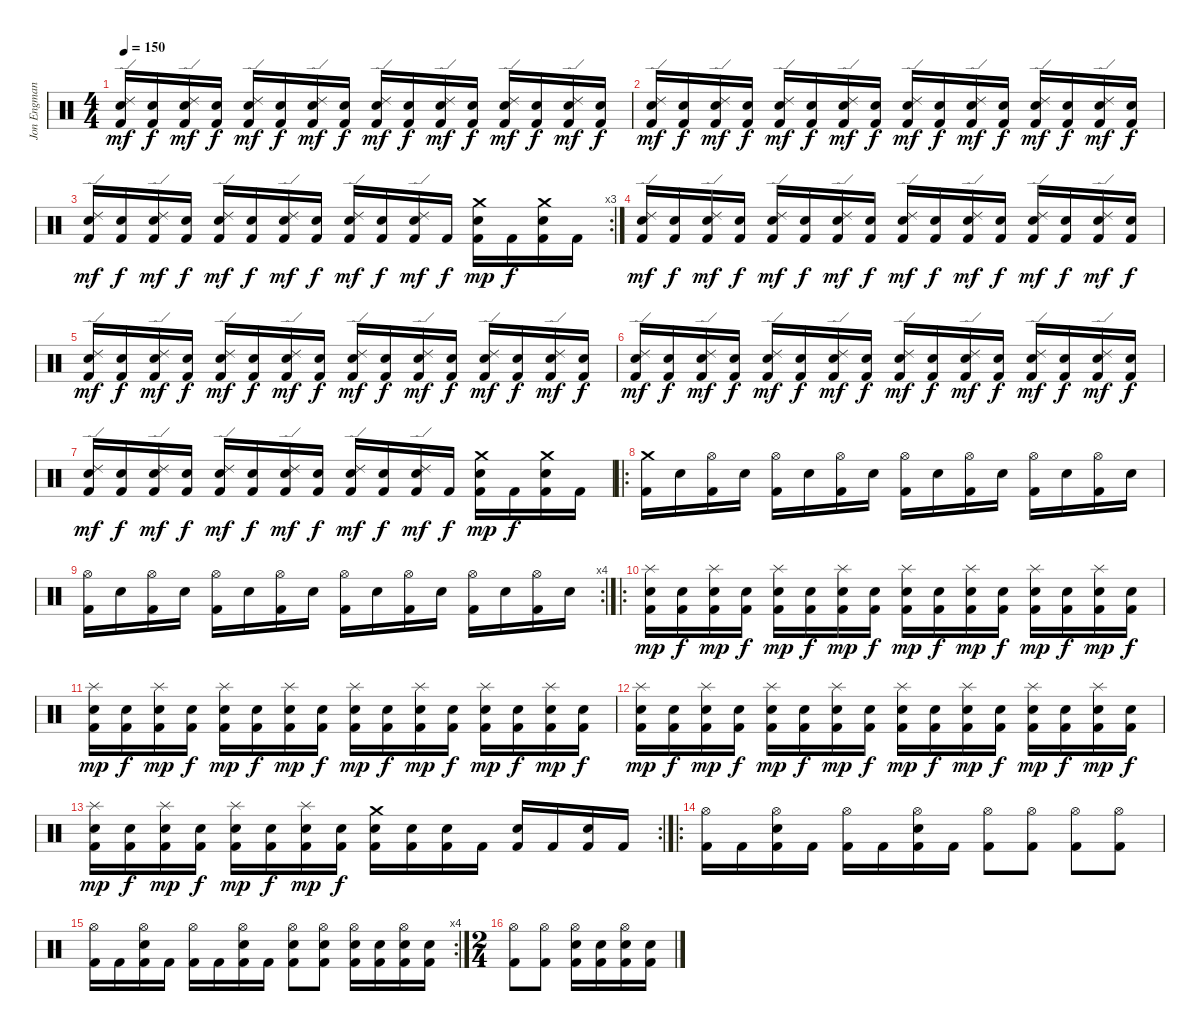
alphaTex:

\track ("Jon Engman" "Jon Engman") {instrument percussion}
\staff {score}
\articulation defaults
\ts (4 4)
\tempo 150
\clef neutral
\ks c
("Ride (edge) 2" "Electric Snare (hit)" "Kick (hit) 2").16{dy mf} ("Electric Snare (hit)" "Kick (hit) 2").16{dy f} ("Ride (edge) 2" "Electric Snare (hit)" "Kick (hit) 2").16{dy mf} ("Electric Snare (hit)" "Kick (hit) 2").16{dy f} ("Ride (edge) 2" "Electric Snare (hit)" "Kick (hit) 2").16{dy mf} ("Electric Snare (hit)" "Kick (hit) 2").16{dy f} ("Ride (edge) 2" "Electric Snare (hit)" "Kick (hit) 2").16{dy mf} ("Electric Snare (hit)" "Kick (hit) 2").16{dy f} ("Ride (edge) 2" "Electric Snare (hit)" "Kick (hit) 2").16{dy mf} ("Electric Snare (hit)" "Kick (hit) 2").16{dy f} ("Ride (edge) 2" "Electric Snare (hit)" "Kick (hit) 2").16{dy mf} ("Electric Snare (hit)" "Kick (hit) 2").16{dy f} ("Ride (edge) 2" "Electric Snare (hit)" "Kick (hit) 2").16{dy mf} ("Electric Snare (hit)" "Kick (hit) 2").16{dy f} ("Ride (edge) 2" "Electric Snare (hit)" "Kick (hit) 2").16{dy mf} ("Electric Snare (hit)" "Kick (hit) 2").16{dy f} |
("Ride (edge) 2" "Electric Snare (hit)" "Kick (hit) 2").16{dy mf} ("Electric Snare (hit)" "Kick (hit) 2").16{dy f} ("Ride (edge) 2" "Electric Snare (hit)" "Kick (hit) 2").16{dy mf} ("Electric Snare (hit)" "Kick (hit) 2").16{dy f} ("Ride (edge) 2" "Electric Snare (hit)" "Kick (hit) 2").16{dy mf} ("Electric Snare (hit)" "Kick (hit) 2").16{dy f} ("Ride (edge) 2" "Electric Snare (hit)" "Kick (hit) 2").16{dy mf} ("Electric Snare (hit)" "Kick (hit) 2").16{dy f} ("Ride (edge) 2" "Electric Snare (hit)" "Kick (hit) 2").16{dy mf} ("Electric Snare (hit)" "Kick (hit) 2").16{dy f} ("Ride (edge) 2" "Electric Snare (hit)" "Kick (hit) 2").16{dy mf} ("Electric Snare (hit)" "Kick (hit) 2").16{dy f} ("Ride (edge) 2" "Electric Snare (hit)" "Kick (hit) 2").16{dy mf} ("Electric Snare (hit)" "Kick (hit) 2").16{dy f} ("Ride (edge) 2" "Electric Snare (hit)" "Kick (hit) 2").16{dy mf} ("Electric Snare (hit)" "Kick (hit) 2").16{dy f} |
\rc 3
("Ride (edge) 2" "Electric Snare (hit)" "Kick (hit) 2").16{dy mf} ("Electric Snare (hit)" "Kick (hit) 2").16{dy f} ("Ride (edge) 2" "Electric Snare (hit)" "Kick (hit) 2").16{dy mf} ("Electric Snare (hit)" "Kick (hit) 2").16{dy f} ("Ride (edge) 2" "Electric Snare (hit)" "Kick (hit) 2").16{dy mf} ("Electric Snare (hit)" "Kick (hit) 2").16{dy f} ("Ride (edge) 2" "Electric Snare (hit)" "Kick (hit) 2").16{dy mf} ("Electric Snare (hit)" "Kick (hit) 2").16{dy f} ("Ride (edge) 2" "Electric Snare (hit)" "Kick (hit) 2").16{dy mf} ("Electric Snare (hit)" "Kick (hit) 2").16{dy f} ("Ride (edge) 2" "Electric Snare (hit)" "Kick (hit) 2").16{dy mf} "Kick (hit) 2".16{dy f} ("Crash medium (hit)" "Electric Snare (hit)" "Kick (hit) 2").16{dy mp} "Kick (hit) 2".16{dy f} ("Crash medium (hit)" "Electric Snare (hit)" "Kick (hit) 2").16 "Kick (hit) 2".16 |
("Ride (edge) 2" "Electric Snare (hit)" "Kick (hit) 2").16{dy mf} ("Electric Snare (hit)" "Kick (hit) 2").16{dy f} ("Ride (edge) 2" "Electric Snare (hit)" "Kick (hit) 2").16{dy mf} ("Electric Snare (hit)" "Kick (hit) 2").16{dy f} ("Ride (edge) 2" "Electric Snare (hit)" "Kick (hit) 2").16{dy mf} ("Electric Snare (hit)" "Kick (hit) 2").16{dy f} ("Ride (edge) 2" "Electric Snare (hit)" "Kick (hit) 2").16{dy mf} ("Electric Snare (hit)" "Kick (hit) 2").16{dy f} ("Ride (edge) 2" "Electric Snare (hit)" "Kick (hit) 2").16{dy mf} ("Electric Snare (hit)" "Kick (hit) 2").16{dy f} ("Ride (edge) 2" "Electric Snare (hit)" "Kick (hit) 2").16{dy mf} ("Electric Snare (hit)" "Kick (hit) 2").16{dy f} ("Ride (edge) 2" "Electric Snare (hit)" "Kick (hit) 2").16{dy mf} ("Electric Snare (hit)" "Kick (hit) 2").16{dy f} ("Ride (edge) 2" "Electric Snare (hit)" "Kick (hit) 2").16{dy mf} ("Electric Snare (hit)" "Kick (hit) 2").16{dy f} |
("Ride (edge) 2" "Electric Snare (hit)" "Kick (hit) 2").16{dy mf} ("Electric Snare (hit)" "Kick (hit) 2").16{dy f} ("Ride (edge) 2" "Electric Snare (hit)" "Kick (hit) 2").16{dy mf} ("Electric Snare (hit)" "Kick (hit) 2").16{dy f} ("Ride (edge) 2" "Electric Snare (hit)" "Kick (hit) 2").16{dy mf} ("Electric Snare (hit)" "Kick (hit) 2").16{dy f} ("Ride (edge) 2" "Electric Snare (hit)" "Kick (hit) 2").16{dy mf} ("Electric Snare (hit)" "Kick (hit) 2").16{dy f} ("Ride (edge) 2" "Electric Snare (hit)" "Kick (hit) 2").16{dy mf} ("Electric Snare (hit)" "Kick (hit) 2").16{dy f} ("Ride (edge) 2" "Electric Snare (hit)" "Kick (hit) 2").16{dy mf} ("Electric Snare (hit)" "Kick (hit) 2").16{dy f} ("Ride (edge) 2" "Electric Snare (hit)" "Kick (hit) 2").16{dy mf} ("Electric Snare (hit)" "Kick (hit) 2").16{dy f} ("Ride (edge) 2" "Electric Snare (hit)" "Kick (hit) 2").16{dy mf} ("Electric Snare (hit)" "Kick (hit) 2").16{dy f} |
("Ride (edge) 2" "Electric Snare (hit)" "Kick (hit) 2").16{dy mf} ("Electric Snare (hit)" "Kick (hit) 2").16{dy f} ("Ride (edge) 2" "Electric Snare (hit)" "Kick (hit) 2").16{dy mf} ("Electric Snare (hit)" "Kick (hit) 2").16{dy f} ("Ride (edge) 2" "Electric Snare (hit)" "Kick (hit) 2").16{dy mf} ("Electric Snare (hit)" "Kick (hit) 2").16{dy f} ("Ride (edge) 2" "Electric Snare (hit)" "Kick (hit) 2").16{dy mf} ("Electric Snare (hit)" "Kick (hit) 2").16{dy f} ("Ride (edge) 2" "Electric Snare (hit)" "Kick (hit) 2").16{dy mf} ("Electric Snare (hit)" "Kick (hit) 2").16{dy f} ("Ride (edge) 2" "Electric Snare (hit)" "Kick (hit) 2").16{dy mf} ("Electric Snare (hit)" "Kick (hit) 2").16{dy f} ("Ride (edge) 2" "Electric Snare (hit)" "Kick (hit) 2").16{dy mf} ("Electric Snare (hit)" "Kick (hit) 2").16{dy f} ("Ride (edge) 2" "Electric Snare (hit)" "Kick (hit) 2").16{dy mf} ("Electric Snare (hit)" "Kick (hit) 2").16{dy f} |
("Ride (edge) 2" "Electric Snare (hit)" "Kick (hit) 2").16{dy mf} ("Electric Snare (hit)" "Kick (hit) 2").16{dy f} ("Ride (edge) 2" "Electric Snare (hit)" "Kick (hit) 2").16{dy mf} ("Electric Snare (hit)" "Kick (hit) 2").16{dy f} ("Ride (edge) 2" "Electric Snare (hit)" "Kick (hit) 2").16{dy mf} ("Electric Snare (hit)" "Kick (hit) 2").16{dy f} ("Ride (edge) 2" "Electric Snare (hit)" "Kick (hit) 2").16{dy mf} ("Electric Snare (hit)" "Kick (hit) 2").16{dy f} ("Ride (edge) 2" "Electric Snare (hit)" "Kick (hit) 2").16{dy mf} ("Electric Snare (hit)" "Kick (hit) 2").16{dy f} ("Ride (edge) 2" "Electric Snare (hit)" "Kick (hit) 2").16{dy mf} "Kick (hit) 2".16{dy f} ("Crash medium (hit)" "Electric Snare (hit)" "Kick (hit) 2").16{dy mp} "Kick (hit) 2".16{dy f} ("Crash medium (hit)" "Electric Snare (hit)" "Kick (hit) 2").16 "Kick (hit) 2".16 |
\ro
("Crash medium (hit)" "Kick (hit) 2").16 "Electric Snare (hit)".16 ("Hi-Hat (open)" "Kick (hit) 2").16 "Electric Snare (hit)".16 ("Hi-Hat (open)" "Kick (hit) 2").16 "Electric Snare (hit)".16 ("Hi-Hat (open)" "Kick (hit) 2").16 "Electric Snare (hit)".16 ("Hi-Hat (open)" "Kick (hit) 2").16 "Electric Snare (hit)".16 ("Hi-Hat (open)" "Kick (hit) 2").16 "Electric Snare (hit)".16 ("Hi-Hat (open)" "Kick (hit) 2").16 "Electric Snare (hit)".16 ("Hi-Hat (open)" "Kick (hit) 2").16 "Electric Snare (hit)".16 |
\rc 4
("Hi-Hat (open)" "Kick (hit) 2").16 "Electric Snare (hit)".16 ("Hi-Hat (open)" "Kick (hit) 2").16 "Electric Snare (hit)".16 ("Hi-Hat (open)" "Kick (hit) 2").16 "Electric Snare (hit)".16 ("Hi-Hat (open)" "Kick (hit) 2").16 "Electric Snare (hit)".16 ("Hi-Hat (open)" "Kick (hit) 2").16 "Electric Snare (hit)".16 ("Hi-Hat (open)" "Kick (hit) 2").16 "Electric Snare (hit)".16 ("Hi-Hat (open)" "Kick (hit) 2").16 "Electric Snare (hit)".16 ("Hi-Hat (open)" "Kick (hit) 2").16 "Electric Snare (hit)".16 |
\ro
("Splash (hit)" "Electric Snare (hit)" "Kick (hit) 2").16{dy mp} ("Electric Snare (hit)" "Kick (hit) 2").16{dy f} ("Splash (hit)" "Electric Snare (hit)" "Kick (hit) 2").16{dy mp} ("Electric Snare (hit)" "Kick (hit) 2").16{dy f} ("Splash (hit)" "Electric Snare (hit)" "Kick (hit) 2").16{dy mp} ("Electric Snare (hit)" "Kick (hit) 2").16{dy f} ("Splash (hit)" "Electric Snare (hit)" "Kick (hit) 2").16{dy mp} ("Electric Snare (hit)" "Kick (hit) 2").16{dy f} ("Splash (hit)" "Electric Snare (hit)" "Kick (hit) 2").16{dy mp} ("Electric Snare (hit)" "Kick (hit) 2").16{dy f} ("Splash (hit)" "Electric Snare (hit)" "Kick (hit) 2").16{dy mp} ("Electric Snare (hit)" "Kick (hit) 2").16{dy f} ("Splash (hit)" "Electric Snare (hit)" "Kick (hit) 2").16{dy mp} ("Electric Snare (hit)" "Kick (hit) 2").16{dy f} ("Splash (hit)" "Electric Snare (hit)" "Kick (hit) 2").16{dy mp} ("Electric Snare (hit)" "Kick (hit) 2").16{dy f} |
("Splash (hit)" "Electric Snare (hit)" "Kick (hit) 2").16{dy mp} ("Electric Snare (hit)" "Kick (hit) 2").16{dy f} ("Splash (hit)" "Electric Snare (hit)" "Kick (hit) 2").16{dy mp} ("Electric Snare (hit)" "Kick (hit) 2").16{dy f} ("Splash (hit)" "Electric Snare (hit)" "Kick (hit) 2").16{dy mp} ("Electric Snare (hit)" "Kick (hit) 2").16{dy f} ("Splash (hit)" "Electric Snare (hit)" "Kick (hit) 2").16{dy mp} ("Electric Snare (hit)" "Kick (hit) 2").16{dy f} ("Splash (hit)" "Electric Snare (hit)" "Kick (hit) 2").16{dy mp} ("Electric Snare (hit)" "Kick (hit) 2").16{dy f} ("Splash (hit)" "Electric Snare (hit)" "Kick (hit) 2").16{dy mp} ("Electric Snare (hit)" "Kick (hit) 2").16{dy f} ("Splash (hit)" "Electric Snare (hit)" "Kick (hit) 2").16{dy mp} ("Electric Snare (hit)" "Kick (hit) 2").16{dy f} ("Splash (hit)" "Electric Snare (hit)" "Kick (hit) 2").16{dy mp} ("Electric Snare (hit)" "Kick (hit) 2").16{dy f} |
("Splash (hit)" "Electric Snare (hit)" "Kick (hit) 2").16{dy mp} ("Electric Snare (hit)" "Kick (hit) 2").16{dy f} ("Splash (hit)" "Electric Snare (hit)" "Kick (hit) 2").16{dy mp} ("Electric Snare (hit)" "Kick (hit) 2").16{dy f} ("Splash (hit)" "Electric Snare (hit)" "Kick (hit) 2").16{dy mp} ("Electric Snare (hit)" "Kick (hit) 2").16{dy f} ("Splash (hit)" "Electric Snare (hit)" "Kick (hit) 2").16{dy mp} ("Electric Snare (hit)" "Kick (hit) 2").16{dy f} ("Splash (hit)" "Electric Snare (hit)" "Kick (hit) 2").16{dy mp} ("Electric Snare (hit)" "Kick (hit) 2").16{dy f} ("Splash (hit)" "Electric Snare (hit)" "Kick (hit) 2").16{dy mp} ("Electric Snare (hit)" "Kick (hit) 2").16{dy f} ("Splash (hit)" "Electric Snare (hit)" "Kick (hit) 2").16{dy mp} ("Electric Snare (hit)" "Kick (hit) 2").16{dy f} ("Splash (hit)" "Electric Snare (hit)" "Kick (hit) 2").16{dy mp} ("Electric Snare (hit)" "Kick (hit) 2").16{dy f} |
\rc 2
("Splash (hit)" "Electric Snare (hit)" "Kick (hit) 2").16{dy mp} ("Electric Snare (hit)" "Kick (hit) 2").16{dy f} ("Splash (hit)" "Electric Snare (hit)" "Kick (hit) 2").16{dy mp} ("Electric Snare (hit)" "Kick (hit) 2").16{dy f} ("Splash (hit)" "Electric Snare (hit)" "Kick (hit) 2").16{dy mp} ("Electric Snare (hit)" "Kick (hit) 2").16{dy f} ("Splash (hit)" "Electric Snare (hit)" "Kick (hit) 2").16{dy mp} ("Electric Snare (hit)" "Kick (hit) 2").16{dy f} ("Crash medium (hit)" "Electric Snare (hit)" "Kick (hit) 2").16 ("Electric Snare (hit)" "Kick (hit) 2").16 ("Electric Snare (hit)" "Kick (hit) 2").16 "Kick (hit) 2".16 ("Electric Snare (hit)" "Kick (hit) 2").16 "Kick (hit) 2".16 ("Electric Snare (hit)" "Kick (hit) 2").16 "Kick (hit) 2".16 |
\ro
("Hi-Hat (open)" "Kick (hit) 2").16 "Kick (hit) 2".16 ("Hi-Hat (open)" "Electric Snare (hit)" "Kick (hit) 2").16 "Kick (hit) 2".16 ("Hi-Hat (open)" "Kick (hit) 2").16 "Kick (hit) 2".16 ("Hi-Hat (open)" "Electric Snare (hit)" "Kick (hit) 2").16 "Kick (hit) 2".16 ("Hi-Hat (open)" "Kick (hit) 2").8 ("Hi-Hat (open)" "Kick (hit) 2").8 ("Hi-Hat (open)" "Kick (hit) 2").8 ("Hi-Hat (open)" "Kick (hit) 2").8 |
\rc 4
("Hi-Hat (open)" "Kick (hit) 2").16 "Kick (hit) 2".16 ("Hi-Hat (open)" "Electric Snare (hit)" "Kick (hit) 2").16 "Kick (hit) 2".16 ("Hi-Hat (open)" "Kick (hit) 2").16 "Kick (hit) 2".16 ("Hi-Hat (open)" "Electric Snare (hit)" "Kick (hit) 2").16 "Kick (hit) 2".16 ("Hi-Hat (open)" "Electric Snare (hit)" "Kick (hit) 2").8 ("Hi-Hat (open)" "Electric Snare (hit)" "Kick (hit) 2").8 ("Hi-Hat (open)" "Electric Snare (hit)" "Kick (hit) 2").16 ("Electric Snare (hit)" "Kick (hit) 2").16 ("Hi-Hat (open)" "Electric Snare (hit)" "Kick (hit) 2").16 ("Electric Snare (hit)" "Kick (hit) 2").16 |
\ts (2 4)
("Hi-Hat (open)" "Kick (hit) 2").8 ("Hi-Hat (open)" "Kick (hit) 2").8 ("Hi-Hat (open)" "Electric Snare (hit)" "Kick (hit) 2").16 ("Electric Snare (hit)" "Kick (hit) 2").16 ("Hi-Hat (open)" "Electric Snare (hit)" "Kick (hit) 2").16 ("Electric Snare (hit)" "Kick (hit) 2").16
